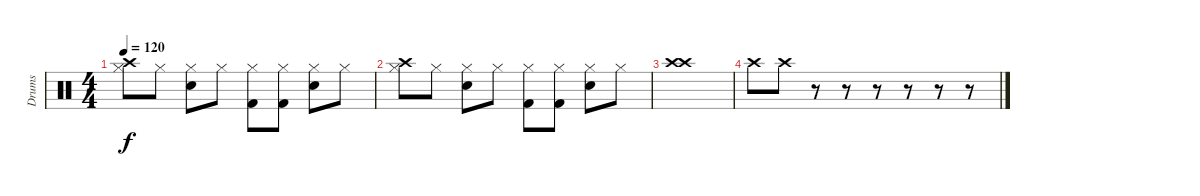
\track ("Drums" "Drums") {instrument percussion}
\staff {score}
\articulation defaults
\ts (4 4)
\tempo 120
\clef neutral
\ks c
("Crash high (hit)" "Hi-Hat (closed)").8{dy f} "Hi-Hat (closed)".8 ("Hi-Hat (closed)" "Snare (hit) 2").8 "Hi-Hat (closed)".8 ("Hi-Hat (closed)" "Kick (hit) 2").8 ("Hi-Hat (closed)" "Kick (hit) 2").8 ("Hi-Hat (closed)" "Snare (hit) 2").8 "Hi-Hat (closed)".8 |
("Crash high (hit)" "Hi-Hat (closed)").8 "Hi-Hat (closed)".8 ("Hi-Hat (closed)" "Snare (hit) 2").8 "Hi-Hat (closed)".8 ("Hi-Hat (closed)" "Kick (hit) 2").8 ("Hi-Hat (closed)" "Kick (hit) 2").8 ("Hi-Hat (closed)" "Snare (hit) 2").8 "Hi-Hat (closed)".8 |
("Crash high (hit)" "Crash high (hit)").1 |
"Crash high (hit)".8 "Crash high (hit)".8 r.8 r.8 r.8 r.8 r.8 r.8
